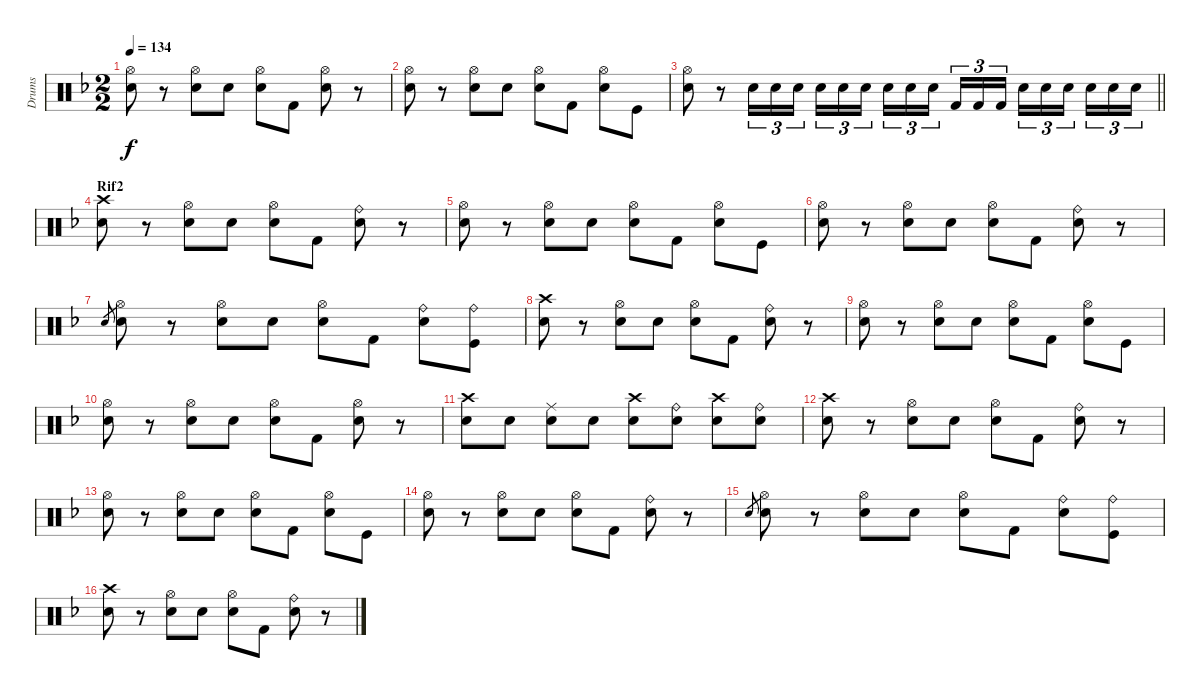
\track ("Drums" "Drums") {instrument percussion}
\staff {score}
\articulation defaults
\ts (2 2)
\tempo 134
\clef neutral
\ks f
("Snare (hit) 2" "Hi-Hat (open)").8{dy f} r.8 ("Snare (hit) 2" "Hi-Hat (open)").8 "Electric Snare (hit)".8 ("Snare (hit) 2" "Hi-Hat (open)").8 "Kick (hit) 2".8 ("Snare (hit) 2" "Hi-Hat (open)").8 r.8 |
("Snare (hit) 2" "Hi-Hat (open)").8 r.8 ("Snare (hit) 2" "Hi-Hat (open)").8 "Electric Snare (hit)".8 ("Snare (hit) 2" "Hi-Hat (open)").8 "Kick (hit) 2".8 ("Snare (hit) 2" "Hi-Hat (open)").8 "Kick (hit)".8 |
\barLineRight lightlight
("Snare (hit) 2" "Hi-Hat (open)").8 r.8 "Snare (hit) 2".16{tu (3 2)} "Snare (hit) 2".16{tu (3 2)} "Snare (hit) 2".16{tu (3 2) beam splitsecondary} "Electric Snare (hit)".16{tu (3 2)} "Electric Snare (hit)".16{tu (3 2)} "Electric Snare (hit)".16{tu (3 2)} "Snare (hit) 2".16{tu (3 2)} "Snare (hit) 2".16{tu (3 2)} "Snare (hit) 2".16{tu (3 2) beam splitsecondary} "Kick (hit) 2".16{tu (3 2)} "Kick (hit) 2".16{tu (3 2)} "Kick (hit) 2".16{tu (3 2) beam splitsecondary} "Electric Snare (hit)".16{tu (3 2)} "Electric Snare (hit)".16{tu (3 2)} "Electric Snare (hit)".16{tu (3 2) beam splitsecondary} "Snare (hit) 2".16{tu (3 2)} "Snare (hit) 2".16{tu (3 2)} "Snare (hit) 2".16{tu (3 2)} |
\section ("" "Rif2")
("Snare (hit) 2" "Crash high (hit)").8 r.8 ("Snare (hit) 2" "Hi-Hat (open)").8 "Electric Snare (hit)".8 ("Snare (hit) 2" "Hi-Hat (open)").8 "Kick (hit) 2".8 ("Snare (hit) 2" "Ride (bell)").8 r.8 |
("Snare (hit) 2" "Hi-Hat (open)").8 r.8 ("Snare (hit) 2" "Hi-Hat (open)").8 "Electric Snare (hit)".8 ("Snare (hit) 2" "Hi-Hat (open)").8 "Kick (hit) 2".8 ("Snare (hit) 2" "Hi-Hat (open)").8 "Kick (hit)".8 |
("Snare (hit) 2" "Hi-Hat (open)").8 r.8 ("Snare (hit) 2" "Hi-Hat (open)").8 "Electric Snare (hit)".8 ("Snare (hit) 2" "Hi-Hat (open)").8 "Kick (hit) 2".8 ("Snare (hit) 2" "Ride (bell)").8 r.8 |
"Snare (hit) 2".8{gr} ("Snare (hit) 2" "Hi-Hat (open)").8 r.8 ("Snare (hit) 2" "Hi-Hat (open)").8 "Electric Snare (hit)".8 ("Snare (hit) 2" "Hi-Hat (open)").8 "Kick (hit) 2".8 ("Snare (hit) 2" "Ride (bell)").8 ("Kick (hit)" "Ride (bell)").8 |
("Snare (hit) 2" "Crash high (hit)").8 r.8 ("Snare (hit) 2" "Hi-Hat (open)").8 "Electric Snare (hit)".8 ("Snare (hit) 2" "Hi-Hat (open)").8 "Kick (hit) 2".8 ("Snare (hit) 2" "Ride (bell)").8 r.8 |
("Snare (hit) 2" "Hi-Hat (open)").8 r.8 ("Snare (hit) 2" "Hi-Hat (open)").8 "Electric Snare (hit)".8 ("Snare (hit) 2" "Hi-Hat (open)").8 "Kick (hit) 2".8 ("Snare (hit) 2" "Hi-Hat (open)").8 "Kick (hit)".8 |
("Snare (hit) 2" "Hi-Hat (open)").8 r.8 ("Snare (hit) 2" "Hi-Hat (open)").8 "Electric Snare (hit)".8 ("Snare (hit) 2" "Hi-Hat (open)").8 "Kick (hit) 2".8 ("Snare (hit) 2" "Hi-Hat (open)").8 r.8 |
("Electric Snare (hit)" "Crash high (hit)").8 "Electric Snare (hit)".8 ("Electric Snare (hit)" "Ride (middle)").8 "Electric Snare (hit)".8 ("Snare (hit) 2" "Crash high (hit)").8 ("Snare (hit) 2" "Ride (bell)").8 ("Snare (hit) 2" "Crash high (hit)").8 ("Snare (hit) 2" "Ride (bell)").8 |
("Snare (hit) 2" "Crash high (hit)").8 r.8 ("Snare (hit) 2" "Hi-Hat (open)").8 "Electric Snare (hit)".8 ("Snare (hit) 2" "Hi-Hat (open)").8 "Kick (hit) 2".8 ("Snare (hit) 2" "Ride (bell)").8 r.8 |
("Snare (hit) 2" "Hi-Hat (open)").8 r.8 ("Snare (hit) 2" "Hi-Hat (open)").8 "Electric Snare (hit)".8 ("Snare (hit) 2" "Hi-Hat (open)").8 "Kick (hit) 2".8 ("Snare (hit) 2" "Hi-Hat (open)").8 "Kick (hit)".8 |
("Snare (hit) 2" "Hi-Hat (open)").8 r.8 ("Snare (hit) 2" "Hi-Hat (open)").8 "Electric Snare (hit)".8 ("Snare (hit) 2" "Hi-Hat (open)").8 "Kick (hit) 2".8 ("Snare (hit) 2" "Ride (bell)").8 r.8 |
"Snare (hit) 2".8{gr} ("Snare (hit) 2" "Hi-Hat (open)").8 r.8 ("Snare (hit) 2" "Hi-Hat (open)").8 "Electric Snare (hit)".8 ("Snare (hit) 2" "Hi-Hat (open)").8 "Kick (hit) 2".8 ("Snare (hit) 2" "Ride (bell)").8 ("Kick (hit)" "Ride (bell)").8 |
("Snare (hit) 2" "Crash high (hit)").8 r.8 ("Snare (hit) 2" "Hi-Hat (open)").8 "Electric Snare (hit)".8 ("Snare (hit) 2" "Hi-Hat (open)").8 "Kick (hit) 2".8 ("Snare (hit) 2" "Ride (bell)").8 r.8
